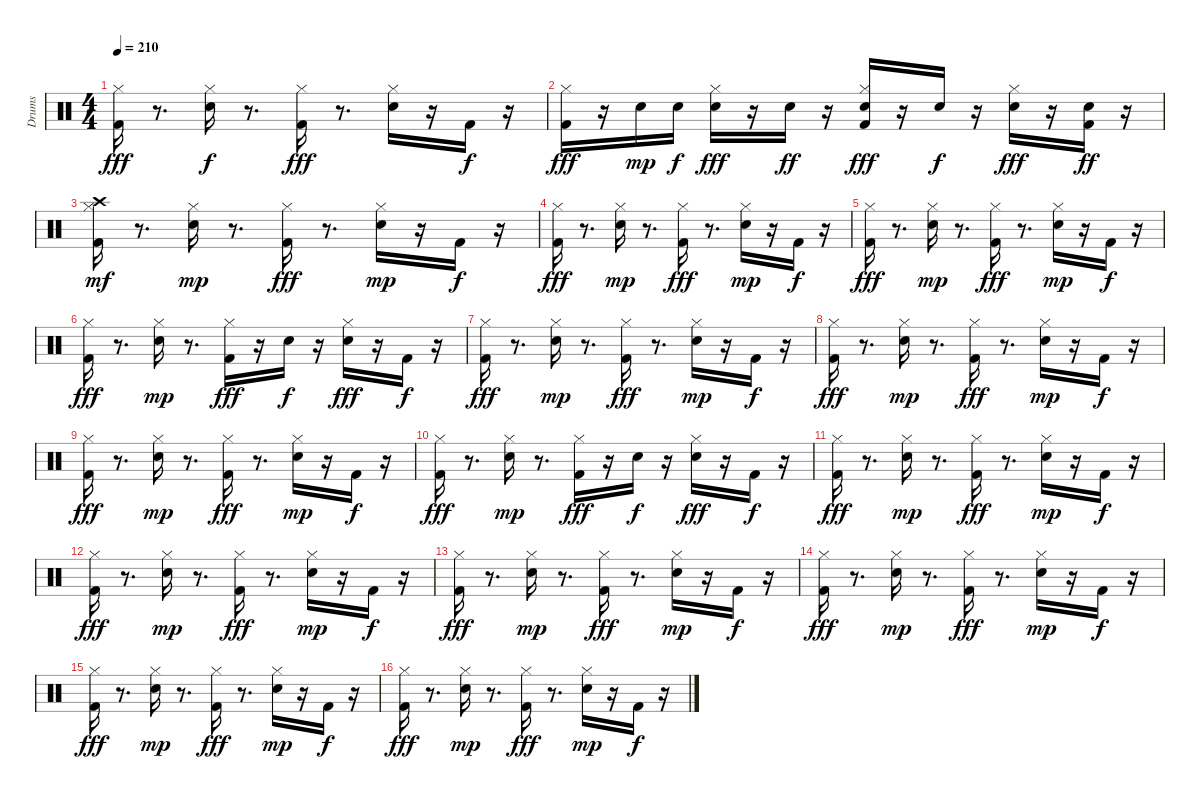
\track ("Drums " "Drums ") {instrument percussion}
\staff {score}
\articulation defaults
\ts (4 4)
\tempo 210
\clef neutral
\ks c
("Kick (hit) 2" "Hi-Hat (closed)").16{dy fff} r.8{d} ("Snare (hit) 2" "Hi-Hat (closed)").16{dy f} r.8{d} ("Kick (hit) 2" "Hi-Hat (closed)").16{dy fff} r.8{d} ("Snare (hit) 2" "Hi-Hat (closed)").16 r.16 "Kick (hit) 2".16{dy f} r.16 |
("Kick (hit) 2" "Hi-Hat (closed)").16{dy fff} r.16 "Snare (hit) 2".16{dy mp} "Snare (hit) 2".16{dy f} ("Snare (hit) 2" "Hi-Hat (closed)").16{dy fff} r.16 "Snare (hit) 2".16{dy ff} r.16 ("Kick (hit) 2" "Snare (hit) 2" "Hi-Hat (closed)").16{dy fff} r.16 "Snare (hit) 2".16{dy f} r.16 ("Snare (hit) 2" "Hi-Hat (closed)").16{dy fff} r.16 ("Kick (hit) 2" "Snare (hit) 2").16{dy ff} r.16 |
("Kick (hit) 2" "Hi-Hat (closed)" "Crash high (hit)").16{dy mf} r.8{d} ("Snare (hit) 2" "Hi-Hat (closed)").16{dy mp} r.8{d} ("Kick (hit) 2" "Hi-Hat (closed)").16{dy fff} r.8{d} ("Snare (hit) 2" "Hi-Hat (closed)").16{dy mp} r.16 "Kick (hit) 2".16{dy f} r.16 |
("Kick (hit) 2" "Hi-Hat (closed)").16{dy fff} r.8{d} ("Snare (hit) 2" "Hi-Hat (closed)").16{dy mp} r.8{d} ("Kick (hit) 2" "Hi-Hat (closed)").16{dy fff} r.8{d} ("Snare (hit) 2" "Hi-Hat (closed)").16{dy mp} r.16 "Kick (hit) 2".16{dy f} r.16 |
("Kick (hit) 2" "Hi-Hat (closed)").16{dy fff} r.8{d} ("Snare (hit) 2" "Hi-Hat (closed)").16{dy mp} r.8{d} ("Kick (hit) 2" "Hi-Hat (closed)").16{dy fff} r.8{d} ("Snare (hit) 2" "Hi-Hat (closed)").16{dy mp} r.16 "Kick (hit) 2".16{dy f} r.16 |
("Kick (hit) 2" "Hi-Hat (closed)").16{dy fff} r.8{d} ("Snare (hit) 2" "Hi-Hat (closed)").16{dy mp} r.8{d} ("Kick (hit) 2" "Hi-Hat (closed)").16{dy fff} r.16 "Snare (hit) 2".16{dy f} r.16 ("Snare (hit) 2" "Hi-Hat (closed)").16{dy fff} r.16 "Kick (hit) 2".16{dy f} r.16 |
("Kick (hit) 2" "Hi-Hat (closed)").16{dy fff} r.8{d} ("Snare (hit) 2" "Hi-Hat (closed)").16{dy mp} r.8{d} ("Kick (hit) 2" "Hi-Hat (closed)").16{dy fff} r.8{d} ("Snare (hit) 2" "Hi-Hat (closed)").16{dy mp} r.16 "Kick (hit) 2".16{dy f} r.16 |
("Kick (hit) 2" "Hi-Hat (closed)").16{dy fff} r.8{d} ("Snare (hit) 2" "Hi-Hat (closed)").16{dy mp} r.8{d} ("Kick (hit) 2" "Hi-Hat (closed)").16{dy fff} r.8{d} ("Snare (hit) 2" "Hi-Hat (closed)").16{dy mp} r.16 "Kick (hit) 2".16{dy f} r.16 |
("Kick (hit) 2" "Hi-Hat (closed)").16{dy fff} r.8{d} ("Snare (hit) 2" "Hi-Hat (closed)").16{dy mp} r.8{d} ("Kick (hit) 2" "Hi-Hat (closed)").16{dy fff} r.8{d} ("Snare (hit) 2" "Hi-Hat (closed)").16{dy mp} r.16 "Kick (hit) 2".16{dy f} r.16 |
("Kick (hit) 2" "Hi-Hat (closed)").16{dy fff} r.8{d} ("Snare (hit) 2" "Hi-Hat (closed)").16{dy mp} r.8{d} ("Kick (hit) 2" "Hi-Hat (closed)").16{dy fff} r.16 "Snare (hit) 2".16{dy f} r.16 ("Snare (hit) 2" "Hi-Hat (closed)").16{dy fff} r.16 "Kick (hit) 2".16{dy f} r.16 |
("Kick (hit) 2" "Hi-Hat (closed)").16{dy fff} r.8{d} ("Snare (hit) 2" "Hi-Hat (closed)").16{dy mp} r.8{d} ("Kick (hit) 2" "Hi-Hat (closed)").16{dy fff} r.8{d} ("Snare (hit) 2" "Hi-Hat (closed)").16{dy mp} r.16 "Kick (hit) 2".16{dy f} r.16 |
("Kick (hit) 2" "Hi-Hat (closed)").16{dy fff} r.8{d} ("Snare (hit) 2" "Hi-Hat (closed)").16{dy mp} r.8{d} ("Kick (hit) 2" "Hi-Hat (closed)").16{dy fff} r.8{d} ("Snare (hit) 2" "Hi-Hat (closed)").16{dy mp} r.16 "Kick (hit) 2".16{dy f} r.16 |
("Kick (hit) 2" "Hi-Hat (closed)").16{dy fff} r.8{d} ("Snare (hit) 2" "Hi-Hat (closed)").16{dy mp} r.8{d} ("Kick (hit) 2" "Hi-Hat (closed)").16{dy fff} r.8{d} ("Snare (hit) 2" "Hi-Hat (closed)").16{dy mp} r.16 "Kick (hit) 2".16{dy f} r.16 |
("Kick (hit) 2" "Hi-Hat (closed)").16{dy fff} r.8{d} ("Snare (hit) 2" "Hi-Hat (closed)").16{dy mp} r.8{d} ("Kick (hit) 2" "Hi-Hat (closed)").16{dy fff} r.8{d} ("Snare (hit) 2" "Hi-Hat (closed)").16{dy mp} r.16 "Kick (hit) 2".16{dy f} r.16 |
("Kick (hit) 2" "Hi-Hat (closed)").16{dy fff} r.8{d} ("Snare (hit) 2" "Hi-Hat (closed)").16{dy mp} r.8{d} ("Kick (hit) 2" "Hi-Hat (closed)").16{dy fff} r.8{d} ("Snare (hit) 2" "Hi-Hat (closed)").16{dy mp} r.16 "Kick (hit) 2".16{dy f} r.16 |
("Kick (hit) 2" "Hi-Hat (closed)").16{dy fff} r.8{d} ("Snare (hit) 2" "Hi-Hat (closed)").16{dy mp} r.8{d} ("Kick (hit) 2" "Hi-Hat (closed)").16{dy fff} r.8{d} ("Snare (hit) 2" "Hi-Hat (closed)").16{dy mp} r.16 "Kick (hit) 2".16{dy f} r.16
